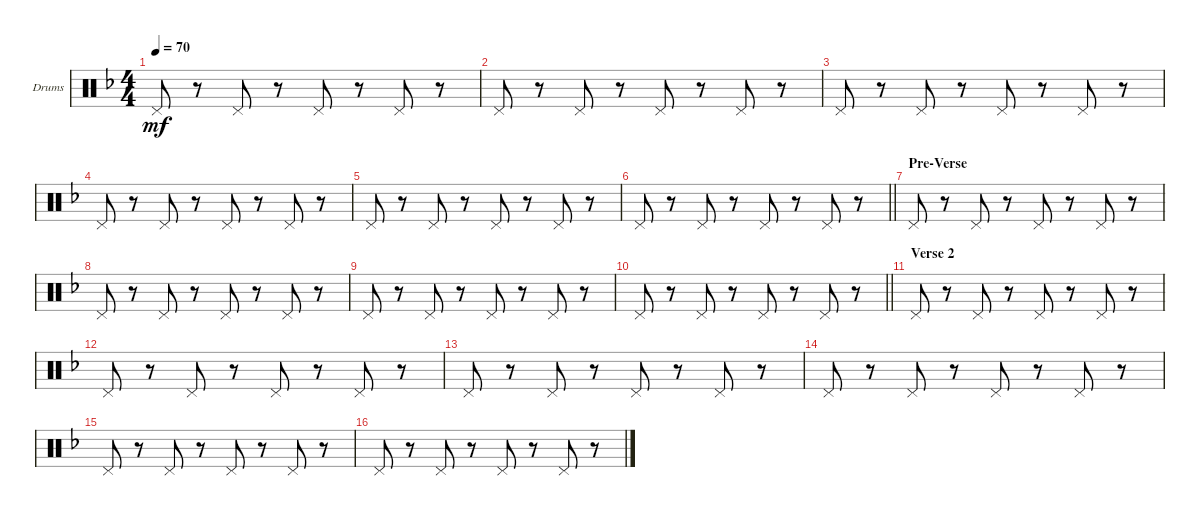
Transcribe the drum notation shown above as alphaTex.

\bracketExtendMode groupsimilarinstruments
\firstSystemTrackNameOrientation horizontal
\otherSystemsTrackNameOrientation horizontal
\track ("Барабаны" "Drums") {instrument percussion}
\staff {score}
\articulation defaults
\ts (4 4)
\tempo 70
\clef neutral
\ks dminor "Pedal Hi-Hat (hit)".8{dy mf}
r.8 "Pedal Hi-Hat (hit)".8 r.8 "Pedal Hi-Hat (hit)".8 r.8 "Pedal Hi-Hat (hit)".8 r.8 |
"Pedal Hi-Hat (hit)".8 r.8 "Pedal Hi-Hat (hit)".8 r.8 "Pedal Hi-Hat (hit)".8 r.8 "Pedal Hi-Hat (hit)".8 r.8 |
"Pedal Hi-Hat (hit)".8 r.8 "Pedal Hi-Hat (hit)".8 r.8 "Pedal Hi-Hat (hit)".8 r.8 "Pedal Hi-Hat (hit)".8 r.8 |
"Pedal Hi-Hat (hit)".8 r.8 "Pedal Hi-Hat (hit)".8 r.8 "Pedal Hi-Hat (hit)".8 r.8 "Pedal Hi-Hat (hit)".8 r.8 |
"Pedal Hi-Hat (hit)".8 r.8 "Pedal Hi-Hat (hit)".8 r.8 "Pedal Hi-Hat (hit)".8 r.8 "Pedal Hi-Hat (hit)".8 r.8 |
\barLineRight lightlight "Pedal Hi-Hat (hit)".8
r.8 "Pedal Hi-Hat (hit)".8 r.8 "Pedal Hi-Hat (hit)".8 r.8 "Pedal Hi-Hat (hit)".8 r.8 |
\section ("" "Pre-Verse")
"Pedal Hi-Hat (hit)".8 r.8 "Pedal Hi-Hat (hit)".8 r.8 "Pedal Hi-Hat (hit)".8 r.8 "Pedal Hi-Hat (hit)".8 r.8 |
"Pedal Hi-Hat (hit)".8 r.8 "Pedal Hi-Hat (hit)".8 r.8 "Pedal Hi-Hat (hit)".8 r.8 "Pedal Hi-Hat (hit)".8 r.8 |
"Pedal Hi-Hat (hit)".8 r.8 "Pedal Hi-Hat (hit)".8 r.8 "Pedal Hi-Hat (hit)".8 r.8 "Pedal Hi-Hat (hit)".8 r.8 |
\barLineRight lightlight "Pedal Hi-Hat (hit)".8
r.8 "Pedal Hi-Hat (hit)".8 r.8 "Pedal Hi-Hat (hit)".8 r.8 "Pedal Hi-Hat (hit)".8 r.8 |
\section ("" "Verse 2")
"Pedal Hi-Hat (hit)".8 r.8 "Pedal Hi-Hat (hit)".8 r.8 "Pedal Hi-Hat (hit)".8 r.8 "Pedal Hi-Hat (hit)".8 r.8 |
"Pedal Hi-Hat (hit)".8 r.8 "Pedal Hi-Hat (hit)".8 r.8 "Pedal Hi-Hat (hit)".8 r.8 "Pedal Hi-Hat (hit)".8 r.8 |
"Pedal Hi-Hat (hit)".8 r.8 "Pedal Hi-Hat (hit)".8 r.8 "Pedal Hi-Hat (hit)".8 r.8 "Pedal Hi-Hat (hit)".8 r.8 |
"Pedal Hi-Hat (hit)".8 r.8 "Pedal Hi-Hat (hit)".8 r.8 "Pedal Hi-Hat (hit)".8 r.8 "Pedal Hi-Hat (hit)".8 r.8 |
"Pedal Hi-Hat (hit)".8 r.8 "Pedal Hi-Hat (hit)".8 r.8 "Pedal Hi-Hat (hit)".8 r.8 "Pedal Hi-Hat (hit)".8 r.8 |
"Pedal Hi-Hat (hit)".8 r.8 "Pedal Hi-Hat (hit)".8 r.8 "Pedal Hi-Hat (hit)".8 r.8 "Pedal Hi-Hat (hit)".8 r.8
